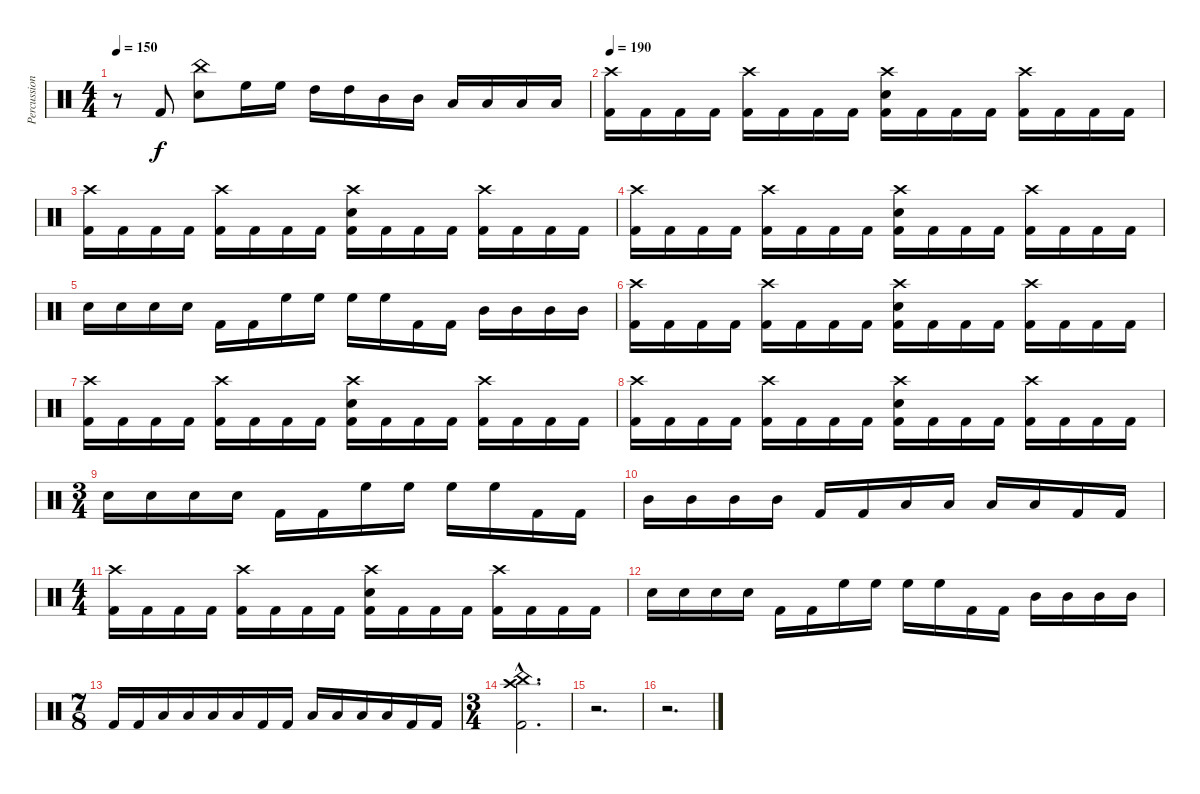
\track ("Percussion" "Percussion") {instrument percussion}
\staff {score}
\articulation defaults
\ts (4 4)
\tempo 150
\clef neutral
\ks c
r.8{dy f} "Kick (hit) 2".8 ("China (hit)" "Electric Snare (hit)").8 "High Floor Tom (hit)".16 "High Floor Tom (hit)".16 "High Tom (hit)".16 "High Tom (hit)".16 "Mid Tom (hit)".16 "Mid Tom (hit)".16 "Low Tom (hit)".16 "Low Tom (hit)".16 "Low Floor Tom (hit)".16 "Low Floor Tom (hit)".16 |
\tempo 170
\tempo 190
("Crash high (hit)" "Kick (hit) 2").16 "Kick (hit) 2".16 "Kick (hit) 2".16 "Kick (hit) 2".16 ("Crash high (hit)" "Kick (hit) 2").16 "Kick (hit) 2".16 "Kick (hit) 2".16 "Kick (hit) 2".16 ("Crash high (hit)" "Electric Snare (hit)" "Kick (hit) 2").16 "Kick (hit) 2".16 "Kick (hit) 2".16 "Kick (hit) 2".16 ("Crash high (hit)" "Kick (hit) 2").16 "Kick (hit) 2".16 "Kick (hit) 2".16 "Kick (hit) 2".16 |
("Crash high (hit)" "Kick (hit) 2").16 "Kick (hit) 2".16 "Kick (hit) 2".16 "Kick (hit) 2".16 ("Crash high (hit)" "Kick (hit) 2").16 "Kick (hit) 2".16 "Kick (hit) 2".16 "Kick (hit) 2".16 ("Crash high (hit)" "Electric Snare (hit)" "Kick (hit) 2").16 "Kick (hit) 2".16 "Kick (hit) 2".16 "Kick (hit) 2".16 ("Crash high (hit)" "Kick (hit) 2").16 "Kick (hit) 2".16 "Kick (hit) 2".16 "Kick (hit) 2".16 |
("Crash high (hit)" "Kick (hit) 2").16 "Kick (hit) 2".16 "Kick (hit) 2".16 "Kick (hit) 2".16 ("Crash high (hit)" "Kick (hit) 2").16 "Kick (hit) 2".16 "Kick (hit) 2".16 "Kick (hit) 2".16 ("Crash high (hit)" "Electric Snare (hit)" "Kick (hit) 2").16 "Kick (hit) 2".16 "Kick (hit) 2".16 "Kick (hit) 2".16 ("Crash high (hit)" "Kick (hit) 2").16 "Kick (hit) 2".16 "Kick (hit) 2".16 "Kick (hit) 2".16 |
"Electric Snare (hit)".16 "Electric Snare (hit)".16 "Electric Snare (hit)".16 "Electric Snare (hit)".16 "Kick (hit) 2".16 "Kick (hit) 2".16 "High Floor Tom (hit)".16 "High Floor Tom (hit)".16 "High Floor Tom (hit)".16 "High Floor Tom (hit)".16 "Kick (hit) 2".16 "Kick (hit) 2".16 "Mid Tom (hit)".16 "Mid Tom (hit)".16 "Mid Tom (hit)".16 "Mid Tom (hit)".16 |
("Crash high (hit)" "Kick (hit) 2").16 "Kick (hit) 2".16 "Kick (hit) 2".16 "Kick (hit) 2".16 ("Crash high (hit)" "Kick (hit) 2").16 "Kick (hit) 2".16 "Kick (hit) 2".16 "Kick (hit) 2".16 ("Crash high (hit)" "Electric Snare (hit)" "Kick (hit) 2").16 "Kick (hit) 2".16 "Kick (hit) 2".16 "Kick (hit) 2".16 ("Crash high (hit)" "Kick (hit) 2").16 "Kick (hit) 2".16 "Kick (hit) 2".16 "Kick (hit) 2".16 |
("Crash high (hit)" "Kick (hit) 2").16 "Kick (hit) 2".16 "Kick (hit) 2".16 "Kick (hit) 2".16 ("Crash high (hit)" "Kick (hit) 2").16 "Kick (hit) 2".16 "Kick (hit) 2".16 "Kick (hit) 2".16 ("Crash high (hit)" "Electric Snare (hit)" "Kick (hit) 2").16 "Kick (hit) 2".16 "Kick (hit) 2".16 "Kick (hit) 2".16 ("Crash high (hit)" "Kick (hit) 2").16 "Kick (hit) 2".16 "Kick (hit) 2".16 "Kick (hit) 2".16 |
("Crash high (hit)" "Kick (hit) 2").16 "Kick (hit) 2".16 "Kick (hit) 2".16 "Kick (hit) 2".16 ("Crash high (hit)" "Kick (hit) 2").16 "Kick (hit) 2".16 "Kick (hit) 2".16 "Kick (hit) 2".16 ("Crash high (hit)" "Electric Snare (hit)" "Kick (hit) 2").16 "Kick (hit) 2".16 "Kick (hit) 2".16 "Kick (hit) 2".16 ("Crash high (hit)" "Kick (hit) 2").16 "Kick (hit) 2".16 "Kick (hit) 2".16 "Kick (hit) 2".16 |
\ts (3 4)
"Electric Snare (hit)".16 "Electric Snare (hit)".16 "Electric Snare (hit)".16 "Electric Snare (hit)".16 "Kick (hit) 2".16 "Kick (hit) 2".16 "High Floor Tom (hit)".16 "High Floor Tom (hit)".16 "High Floor Tom (hit)".16 "High Floor Tom (hit)".16 "Kick (hit) 2".16 "Kick (hit) 2".16 |
"Mid Tom (hit)".16 "Mid Tom (hit)".16 "Mid Tom (hit)".16 "Mid Tom (hit)".16 "Kick (hit) 2".16 "Kick (hit) 2".16 "Low Tom (hit)".16 "Low Tom (hit)".16 "Low Tom (hit)".16 "Low Tom (hit)".16 "Kick (hit) 2".16 "Kick (hit) 2".16 |
\ts (4 4)
("Crash high (hit)" "Kick (hit) 2").16 "Kick (hit) 2".16 "Kick (hit) 2".16 "Kick (hit) 2".16 ("Crash high (hit)" "Kick (hit) 2").16 "Kick (hit) 2".16 "Kick (hit) 2".16 "Kick (hit) 2".16 ("Crash high (hit)" "Electric Snare (hit)" "Kick (hit) 2").16 "Kick (hit) 2".16 "Kick (hit) 2".16 "Kick (hit) 2".16 ("Crash high (hit)" "Kick (hit) 2").16 "Kick (hit) 2".16 "Kick (hit) 2".16 "Kick (hit) 2".16 |
"Electric Snare (hit)".16 "Electric Snare (hit)".16 "Electric Snare (hit)".16 "Electric Snare (hit)".16 "Kick (hit) 2".16 "Kick (hit) 2".16 "High Floor Tom (hit)".16 "High Floor Tom (hit)".16 "High Floor Tom (hit)".16 "High Floor Tom (hit)".16 "Kick (hit) 2".16 "Kick (hit) 2".16 "Mid Tom (hit)".16 "Mid Tom (hit)".16 "Mid Tom (hit)".16 "Mid Tom (hit)".16 |
\ts (7 8)
"Kick (hit) 2".16 "Kick (hit) 2".16 "Low Tom (hit)".16 "Low Tom (hit)".16 "Low Tom (hit)".16 "Low Tom (hit)".16 "Kick (hit) 2".16 "Kick (hit) 2".16 "Low Floor Tom (hit)".16 "Low Floor Tom (hit)".16 "Low Floor Tom (hit)".16 "Low Floor Tom (hit)".16 "Kick (hit) 2".16 "Kick (hit) 2".16 |
\ts (3 4)
("China (hit)"{hac} "Crash high (hit)"{hac} "Kick (hit) 2"{hac}).2{d} |
r.2{d} |
r.2{d}
